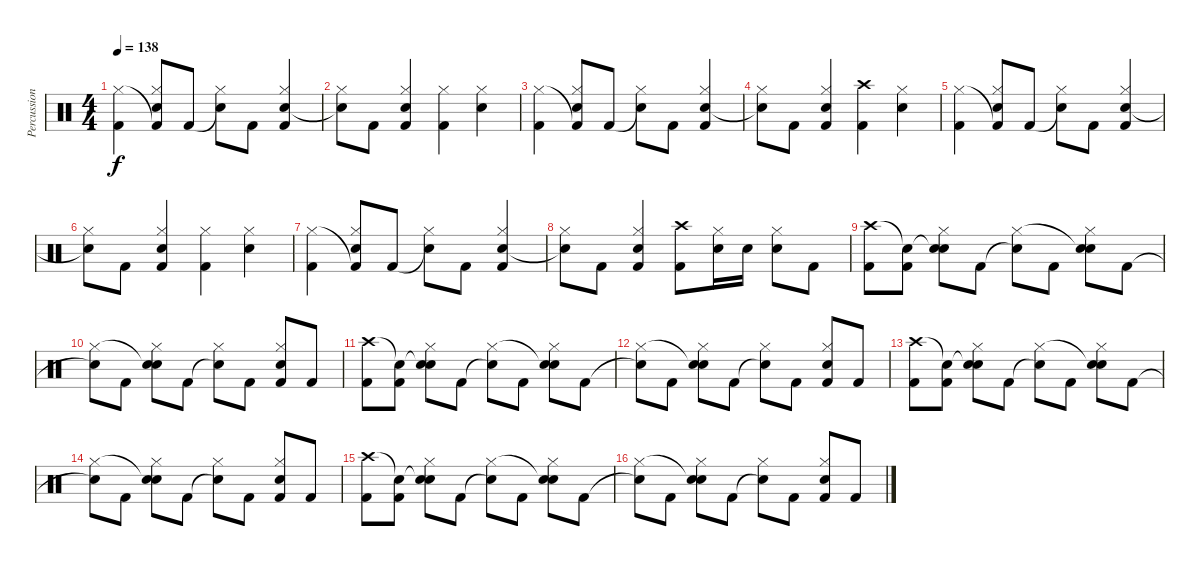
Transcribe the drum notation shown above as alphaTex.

\track ("Percussion" "Percussion") {instrument percussion}
\staff {score}
\articulation defaults
\ts (4 4)
\tempo 138
\clef neutral
\ks c
("Kick (hit) 2" "Hi-Hat (closed)").4{dy f} ("Snare (hit) 2" "Kick (hit) 2"{t} "Hi-Hat (closed)").8 "Kick (hit) 2".8 ("Snare (hit)"{t} "Hi-Hat (closed)").8 "Kick (hit) 2".8 ("Snare (hit) 2" "Kick (hit) 2" "Hi-Hat (closed)").4 |
("Snare (hit)"{t} "Hi-Hat (closed)").8 "Kick (hit) 2".8 ("Snare (hit) 2" "Kick (hit) 2" "Hi-Hat (closed)").4 ("Kick (hit) 2" "Hi-Hat (closed)").4 ("Snare (hit) 2" "Hi-Hat (closed)").4 |
("Kick (hit) 2" "Hi-Hat (closed)").4 ("Snare (hit) 2" "Kick (hit) 2"{t} "Hi-Hat (closed)").8 "Kick (hit) 2".8 ("Snare (hit)"{t} "Hi-Hat (closed)").8 "Kick (hit) 2".8 ("Snare (hit) 2" "Kick (hit) 2" "Hi-Hat (closed)").4 |
("Snare (hit)"{t} "Hi-Hat (closed)").8 "Kick (hit) 2".8 ("Snare (hit) 2" "Kick (hit) 2" "Hi-Hat (closed)").4 ("Kick (hit) 2" "Crash high (hit)").4 ("Snare (hit) 2" "Hi-Hat (closed)").4 |
("Kick (hit) 2" "Hi-Hat (closed)").4 ("Snare (hit) 2" "Kick (hit) 2"{t} "Hi-Hat (closed)").8 "Kick (hit) 2".8 ("Snare (hit)"{t} "Hi-Hat (closed)").8 "Kick (hit) 2".8 ("Snare (hit) 2" "Kick (hit) 2" "Hi-Hat (closed)").4 |
("Snare (hit)"{t} "Hi-Hat (closed)").8 "Kick (hit) 2".8 ("Snare (hit) 2" "Kick (hit) 2" "Hi-Hat (closed)").4 ("Kick (hit) 2" "Hi-Hat (closed)").4 ("Snare (hit) 2" "Hi-Hat (closed)").4 |
("Kick (hit) 2" "Hi-Hat (closed)").4 ("Snare (hit) 2" "Kick (hit) 2"{t} "Hi-Hat (closed)").8 "Kick (hit) 2".8 ("Snare (hit)"{t} "Hi-Hat (closed)").8 "Kick (hit) 2".8 ("Snare (hit) 2" "Kick (hit) 2" "Hi-Hat (closed)").4 |
("Snare (hit)"{t} "Hi-Hat (closed)").8 "Kick (hit) 2".8 ("Snare (hit) 2" "Kick (hit) 2" "Hi-Hat (closed)").4 ("Kick (hit) 2" "Crash high (hit)").8 ("Electric Snare (hit)" "Hi-Hat (closed)").16 "Electric Snare (hit)".16 ("Electric Snare (hit)" "Hi-Hat (closed)").8 "Kick (hit) 2".8 |
("Kick (hit) 2" "Crash high (hit)").8 ("Kick (hit) 2" "Snare (hit)"{t}).8 ("Snare (hit) 2" "Snare (hit)"{t} "Hi-Hat (closed)").8 "Kick (hit) 2".8 ("Snare (hit)"{t} "Hi-Hat (closed)").8 "Kick (hit) 2".8 ("Snare (hit) 2" "Snare (hit)"{t} "Hi-Hat (closed)").8 "Kick (hit) 2".8 |
("Snare (hit)"{t} "Hi-Hat (closed)").8 "Kick (hit) 2".8 ("Snare (hit) 2" "Snare (hit)"{t} "Hi-Hat (closed)").8 "Kick (hit) 2".8 ("Snare (hit)"{t} "Hi-Hat (closed)").8 "Kick (hit) 2".8 ("Snare (hit) 2" "Kick (hit) 2" "Hi-Hat (closed)").8 "Kick (hit) 2".8 |
("Kick (hit) 2" "Crash high (hit)").8 ("Kick (hit) 2" "Snare (hit)"{t}).8 ("Snare (hit) 2" "Snare (hit)"{t} "Hi-Hat (closed)").8 "Kick (hit) 2".8 ("Snare (hit)"{t} "Hi-Hat (closed)").8 "Kick (hit) 2".8 ("Snare (hit) 2" "Snare (hit)"{t} "Hi-Hat (closed)").8 "Kick (hit) 2".8 |
("Snare (hit)"{t} "Hi-Hat (closed)").8 "Kick (hit) 2".8 ("Snare (hit) 2" "Snare (hit)"{t} "Hi-Hat (closed)").8 "Kick (hit) 2".8 ("Snare (hit)"{t} "Hi-Hat (closed)").8 "Kick (hit) 2".8 ("Snare (hit) 2" "Kick (hit) 2" "Hi-Hat (closed)").8 "Kick (hit) 2".8 |
("Kick (hit) 2" "Crash high (hit)").8 ("Kick (hit) 2" "Snare (hit)"{t}).8 ("Snare (hit) 2" "Snare (hit)"{t} "Hi-Hat (closed)").8 "Kick (hit) 2".8 ("Snare (hit)"{t} "Hi-Hat (closed)").8 "Kick (hit) 2".8 ("Snare (hit) 2" "Snare (hit)"{t} "Hi-Hat (closed)").8 "Kick (hit) 2".8 |
("Snare (hit)"{t} "Hi-Hat (closed)").8 "Kick (hit) 2".8 ("Snare (hit) 2" "Snare (hit)"{t} "Hi-Hat (closed)").8 "Kick (hit) 2".8 ("Snare (hit)"{t} "Hi-Hat (closed)").8 "Kick (hit) 2".8 ("Snare (hit) 2" "Kick (hit) 2" "Hi-Hat (closed)").8 "Kick (hit) 2".8 |
("Kick (hit) 2" "Crash high (hit)").8 ("Kick (hit) 2" "Snare (hit)"{t}).8 ("Snare (hit) 2" "Snare (hit)"{t} "Hi-Hat (closed)").8 "Kick (hit) 2".8 ("Snare (hit)"{t} "Hi-Hat (closed)").8 "Kick (hit) 2".8 ("Snare (hit) 2" "Snare (hit)"{t} "Hi-Hat (closed)").8 "Kick (hit) 2".8 |
("Snare (hit)"{t} "Hi-Hat (closed)").8 "Kick (hit) 2".8 ("Snare (hit) 2" "Snare (hit)"{t} "Hi-Hat (closed)").8 "Kick (hit) 2".8 ("Snare (hit)"{t} "Hi-Hat (closed)").8 "Kick (hit) 2".8 ("Snare (hit) 2" "Kick (hit) 2" "Hi-Hat (closed)").8 "Kick (hit) 2".8
